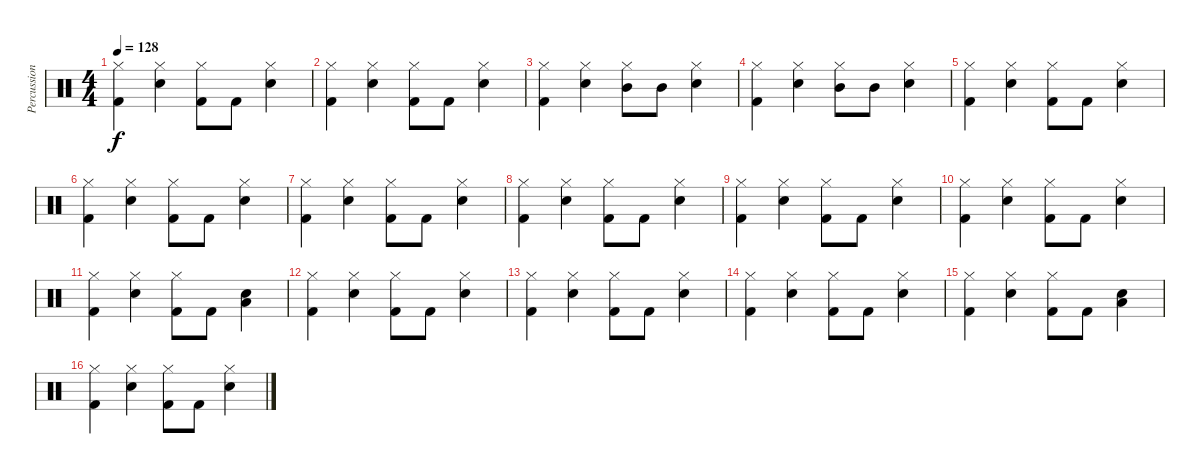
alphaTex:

\track ("Percussion" "Percussion") {instrument percussion}
\staff {score}
\articulation defaults
\ts (4 4)
\tempo 128
\clef neutral
\ks c
("Hi-Hat (closed)" "Kick (hit) 2").4{dy f} ("Hi-Hat (closed)" "Snare (hit) 2").4 ("Hi-Hat (closed)" "Kick (hit) 2").8 "Kick (hit) 2".8 ("Hi-Hat (closed)" "Snare (hit) 2").4 |
("Hi-Hat (closed)" "Kick (hit) 2").4 ("Hi-Hat (closed)" "Snare (hit) 2").4 ("Hi-Hat (closed)" "Kick (hit) 2").8 "Kick (hit) 2".8 ("Hi-Hat (closed)" "Snare (hit) 2").4 |
("Hi-Hat (closed)" "Kick (hit) 2").4 ("Hi-Hat (closed)" "Snare (hit) 2").4 ("Hi-Hat (closed)" "Mid Tom (hit)").8 "Mid Tom (hit)".8 ("Hi-Hat (closed)" "Snare (hit) 2").4 |
("Hi-Hat (closed)" "Kick (hit) 2").4 ("Hi-Hat (closed)" "Snare (hit) 2").4 ("Hi-Hat (closed)" "Mid Tom (hit)").8 "Mid Tom (hit)".8 ("Hi-Hat (closed)" "Snare (hit) 2").4 |
("Hi-Hat (closed)" "Kick (hit) 2").4 ("Hi-Hat (closed)" "Snare (hit) 2").4 ("Hi-Hat (closed)" "Kick (hit) 2").8 "Kick (hit) 2".8 ("Hi-Hat (closed)" "Snare (hit) 2").4 |
("Hi-Hat (closed)" "Kick (hit) 2").4 ("Hi-Hat (closed)" "Snare (hit) 2").4 ("Hi-Hat (closed)" "Kick (hit) 2").8 "Kick (hit) 2".8 ("Hi-Hat (closed)" "Snare (hit) 2").4 |
("Hi-Hat (closed)" "Kick (hit) 2").4 ("Hi-Hat (closed)" "Snare (hit) 2").4 ("Hi-Hat (closed)" "Kick (hit) 2").8 "Kick (hit) 2".8 ("Hi-Hat (closed)" "Snare (hit) 2").4 |
("Hi-Hat (closed)" "Kick (hit) 2").4 ("Hi-Hat (closed)" "Snare (hit) 2").4 ("Hi-Hat (closed)" "Kick (hit) 2").8 "Kick (hit) 2".8 ("Hi-Hat (closed)" "Snare (hit) 2").4 |
("Hi-Hat (closed)" "Kick (hit) 2").4 ("Hi-Hat (closed)" "Snare (hit) 2").4 ("Hi-Hat (closed)" "Kick (hit) 2").8 "Kick (hit) 2".8 ("Hi-Hat (closed)" "Snare (hit) 2").4 |
("Hi-Hat (closed)" "Kick (hit) 2").4 ("Hi-Hat (closed)" "Snare (hit) 2").4 ("Hi-Hat (closed)" "Kick (hit) 2").8 "Kick (hit) 2".8 ("Hi-Hat (closed)" "Snare (hit) 2").4 |
("Hi-Hat (closed)" "Kick (hit) 2").4 ("Hi-Hat (closed)" "Snare (hit) 2").4 ("Hi-Hat (closed)" "Kick (hit) 2").8 "Kick (hit) 2".8 ("Low Tom (hit)" "Snare (hit) 2").4 |
("Hi-Hat (closed)" "Kick (hit) 2").4 ("Hi-Hat (closed)" "Snare (hit) 2").4 ("Hi-Hat (closed)" "Kick (hit) 2").8 "Kick (hit) 2".8 ("Hi-Hat (closed)" "Snare (hit) 2").4 |
("Hi-Hat (closed)" "Kick (hit) 2").4 ("Hi-Hat (closed)" "Snare (hit) 2").4 ("Hi-Hat (closed)" "Kick (hit) 2").8 "Kick (hit) 2".8 ("Hi-Hat (closed)" "Snare (hit) 2").4 |
("Hi-Hat (closed)" "Kick (hit) 2").4 ("Hi-Hat (closed)" "Snare (hit) 2").4 ("Hi-Hat (closed)" "Kick (hit) 2").8 "Kick (hit) 2".8 ("Hi-Hat (closed)" "Snare (hit) 2").4 |
("Hi-Hat (closed)" "Kick (hit) 2").4 ("Hi-Hat (closed)" "Snare (hit) 2").4 ("Hi-Hat (closed)" "Kick (hit) 2").8 "Kick (hit) 2".8 ("Low Tom (hit)" "Snare (hit) 2").4 |
("Hi-Hat (closed)" "Kick (hit) 2").4 ("Hi-Hat (closed)" "Snare (hit) 2").4 ("Hi-Hat (closed)" "Kick (hit) 2").8 "Kick (hit) 2".8 ("Hi-Hat (closed)" "Snare (hit) 2").4
